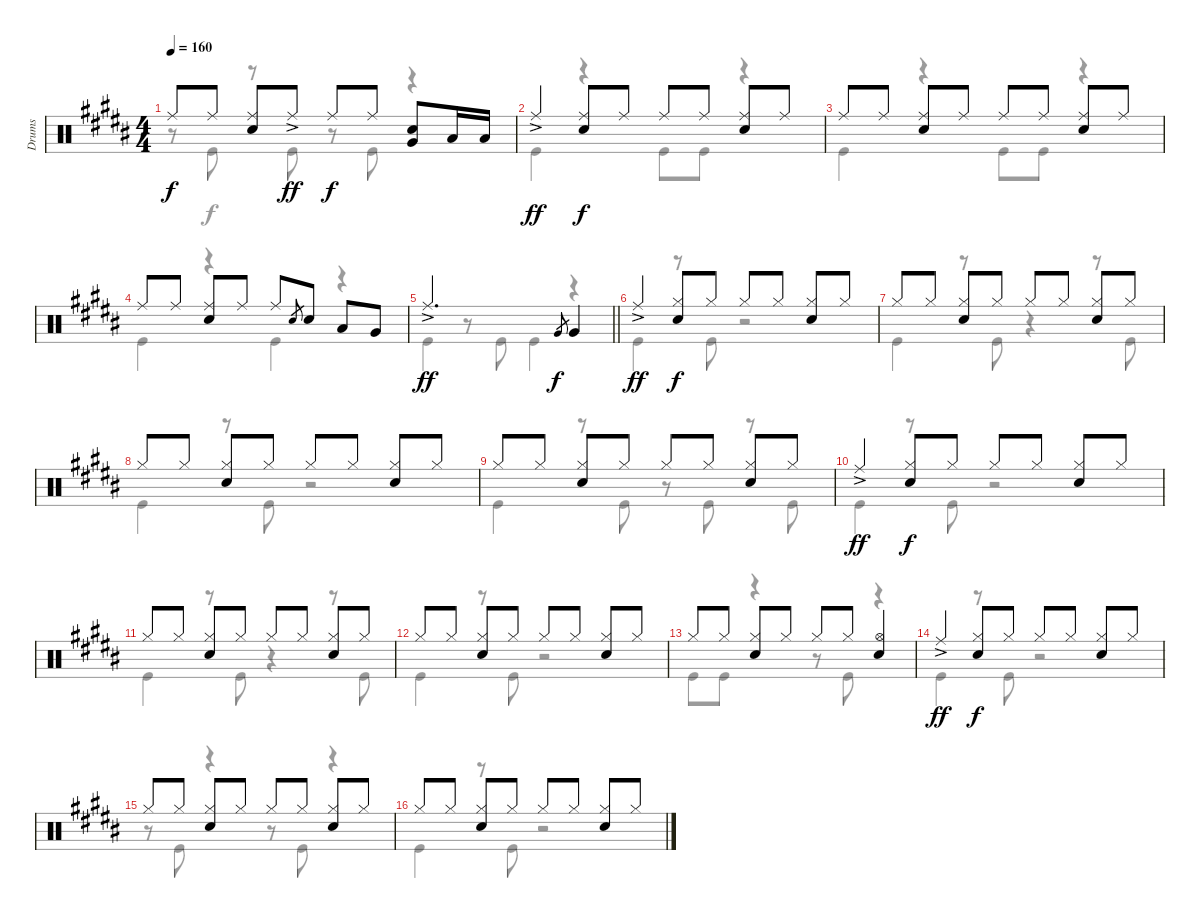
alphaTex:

\track ("Drums" "Drums") {instrument percussion}
\staff {score}
\articulation defaults
\voice
\ts (4 4)
\tempo 160
\clef neutral
\ks b "Ride (middle)".8{dy f} "Ride (middle)".8
("Ride (middle)" "Snare (hit) 2").8 "Ride (middle)"{ac}.8{dy ff} "Ride (middle)".8{dy f} "Ride (middle)".8 ("Snare (hit) 2" "Very Low Tom (hit)").8 "Low Tom (hit)".16 "Low Tom (hit)".16 |
"Ride (middle)"{ac}.4{dy ff} ("Ride (middle)" "Snare (hit) 2").8{dy f} "Ride (middle)".8 "Ride (middle)".8 "Ride (middle)".8 ("Ride (middle)" "Snare (hit) 2").8 "Ride (middle)".8 |
"Ride (middle)".8 "Ride (middle)".8 ("Ride (middle)" "Snare (hit) 2").8 "Ride (middle)".8 "Ride (middle)".8 "Ride (middle)".8 ("Ride (middle)" "Snare (hit) 2").8 "Ride (middle)".8 |
"Ride (middle)".8 "Ride (middle)".8 ("Ride (middle)" "Snare (hit) 2").8 "Ride (middle)".8 "Ride (middle)".8 "Snare (hit) 2".8{gr} "Snare (hit) 2".8 "Low Tom (hit)".8 "Very Low Tom (hit)".8 |
\barLineRight lightlight "Ride (middle)"{ac}.2{d dy ff} "Very Low Tom (hit)".8{gr dy f} "Very Low Tom (hit)".4
|
"Ride (middle)"{ac}.4{dy ff} ("Hi-Hat (closed)" "Snare (hit) 2").8{dy f} "Hi-Hat (closed)".8 "Hi-Hat (closed)".8 "Hi-Hat (closed)".8 ("Hi-Hat (closed)" "Snare (hit) 2").8 "Hi-Hat (closed)".8 |
"Hi-Hat (closed)".8 "Hi-Hat (closed)".8 ("Hi-Hat (closed)" "Snare (hit) 2").8 "Hi-Hat (closed)".8 "Hi-Hat (closed)".8 "Hi-Hat (closed)".8 ("Hi-Hat (closed)" "Snare (hit) 2").8 "Hi-Hat (closed)".8 |
"Hi-Hat (closed)".8 "Hi-Hat (closed)".8 ("Hi-Hat (closed)" "Snare (hit) 2").8 "Hi-Hat (closed)".8 "Hi-Hat (closed)".8 "Hi-Hat (closed)".8 ("Hi-Hat (closed)" "Snare (hit) 2").8 "Hi-Hat (closed)".8 |
"Hi-Hat (closed)".8 "Hi-Hat (closed)".8 ("Hi-Hat (closed)" "Snare (hit) 2").8 "Hi-Hat (closed)".8 "Hi-Hat (closed)".8 "Hi-Hat (closed)".8 ("Hi-Hat (closed)" "Snare (hit) 2").8 "Hi-Hat (closed)".8 |
"Ride (middle)"{ac}.4{dy ff} ("Hi-Hat (closed)" "Snare (hit) 2").8{dy f} "Hi-Hat (closed)".8 "Hi-Hat (closed)".8 "Hi-Hat (closed)".8 ("Hi-Hat (closed)" "Snare (hit) 2").8 "Hi-Hat (closed)".8 |
"Hi-Hat (closed)".8 "Hi-Hat (closed)".8 ("Hi-Hat (closed)" "Snare (hit) 2").8 "Hi-Hat (closed)".8 "Hi-Hat (closed)".8 "Hi-Hat (closed)".8 ("Hi-Hat (closed)" "Snare (hit) 2").8 "Hi-Hat (closed)".8 |
"Hi-Hat (closed)".8 "Hi-Hat (closed)".8 ("Hi-Hat (closed)" "Snare (hit) 2").8 "Hi-Hat (closed)".8 "Hi-Hat (closed)".8 "Hi-Hat (closed)".8 ("Hi-Hat (closed)" "Snare (hit) 2").8 "Hi-Hat (closed)".8 |
"Hi-Hat (closed)".8 "Hi-Hat (closed)".8 ("Hi-Hat (closed)" "Snare (hit) 2").8 "Hi-Hat (closed)".8 "Hi-Hat (closed)".8 "Hi-Hat (closed)".8 ("Hi-Hat (open)" "Snare (hit) 2").4 |
"Ride (middle)"{ac}.4{dy ff} ("Hi-Hat (closed)" "Snare (hit) 2").8{dy f} "Hi-Hat (closed)".8 "Hi-Hat (closed)".8 "Hi-Hat (closed)".8 ("Hi-Hat (closed)" "Snare (hit) 2").8 "Hi-Hat (closed)".8 |
"Hi-Hat (closed)".8 "Hi-Hat (closed)".8 ("Hi-Hat (closed)" "Snare (hit) 2").8 "Hi-Hat (closed)".8 "Hi-Hat (closed)".8 "Hi-Hat (closed)".8 ("Hi-Hat (closed)" "Snare (hit) 2").8 "Hi-Hat (closed)".8 |
"Hi-Hat (closed)".8 "Hi-Hat (closed)".8 ("Hi-Hat (closed)" "Snare (hit) 2").8 "Hi-Hat (closed)".8 "Hi-Hat (closed)".8 "Hi-Hat (closed)".8 ("Hi-Hat (closed)" "Snare (hit) 2").8 "Hi-Hat (closed)".8
\voice
\clef neutral
\ottava regular
\simile none
\ks b
r.8{dy f} "Kick (hit)".8 r.8 "Kick (hit)".8 r.8 "Kick (hit)".8 r.4 |
"Kick (hit)".4 r.4 "Kick (hit)".8 "Kick (hit)".8 r.4 |
"Kick (hit)".4 r.4 "Kick (hit)".8 "Kick (hit)".8 r.4 |
"Kick (hit)".4 r.4 "Kick (hit)".4 r.4 |
\barLineRight lightlight "Kick (hit)".4
r.8 "Kick (hit)".8 "Kick (hit)".4 r.4 |
"Kick (hit)".4 r.8 "Kick (hit)".8 r.2 |
"Kick (hit)".4 r.8 "Kick (hit)".8 r.4 r.8 "Kick (hit)".8 |
"Kick (hit)".4 r.8 "Kick (hit)".8 r.2 |
"Kick (hit)".4 r.8 "Kick (hit)".8 r.8 "Kick (hit)".8 r.8 "Kick (hit)".8 |
"Kick (hit)".4 r.8 "Kick (hit)".8 r.2 |
"Kick (hit)".4 r.8 "Kick (hit)".8 r.4 r.8 "Kick (hit)".8 |
"Kick (hit)".4 r.8 "Kick (hit)".8 r.2 |
"Kick (hit)".8 "Kick (hit)".8 r.4 r.8 "Kick (hit)".8 r.4 |
"Kick (hit)".4 r.8 "Kick (hit)".8 r.2 |
r.8 "Kick (hit)".8 r.4 r.8 "Kick (hit)".8 r.4 |
"Kick (hit)".4 r.8 "Kick (hit)".8 r.2
